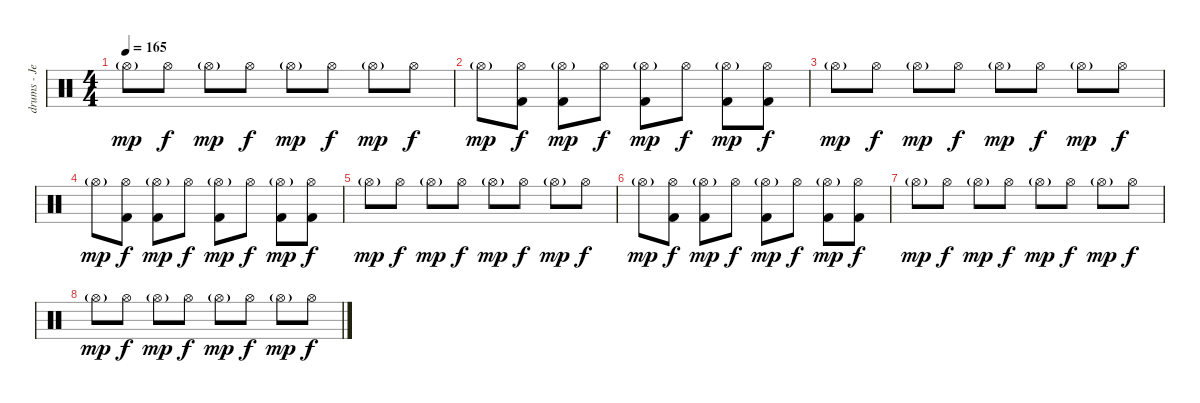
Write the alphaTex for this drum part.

\track ("drums - Jeff" "drums - Je") {instrument percussion}
\staff {score}
\articulation defaults
\ts (4 4)
\tempo 165
\clef neutral
\ks c "Hi-Hat (open)"{g}.8{dy mp} "Hi-Hat (open)".8{dy f} "Hi-Hat (open)"{g}.8{dy mp} "Hi-Hat (open)".8{dy f} "Hi-Hat (open)"{g}.8{dy mp} "Hi-Hat (open)".8{dy f} "Hi-Hat (open)"{g}.8{dy mp} "Hi-Hat (open)".8{dy f}
|
"Hi-Hat (open)"{g}.8{dy mp} ("Hi-Hat (open)" "Kick (hit) 2").8{dy f} ("Hi-Hat (open)"{g} "Kick (hit) 2").8{dy mp} "Hi-Hat (open)".8{dy f} ("Hi-Hat (open)"{g} "Kick (hit) 2").8{dy mp} "Hi-Hat (open)".8{dy f} ("Hi-Hat (open)"{g} "Kick (hit) 2").8{dy mp} ("Hi-Hat (open)" "Kick (hit) 2").8{dy f} |
"Hi-Hat (open)"{g}.8{dy mp} "Hi-Hat (open)".8{dy f} "Hi-Hat (open)"{g}.8{dy mp} "Hi-Hat (open)".8{dy f} "Hi-Hat (open)"{g}.8{dy mp} "Hi-Hat (open)".8{dy f} "Hi-Hat (open)"{g}.8{dy mp} "Hi-Hat (open)".8{dy f} |
"Hi-Hat (open)"{g}.8{dy mp} ("Hi-Hat (open)" "Kick (hit) 2").8{dy f} ("Hi-Hat (open)"{g} "Kick (hit) 2").8{dy mp} "Hi-Hat (open)".8{dy f} ("Hi-Hat (open)"{g} "Kick (hit) 2").8{dy mp} "Hi-Hat (open)".8{dy f} ("Hi-Hat (open)"{g} "Kick (hit) 2").8{dy mp} ("Hi-Hat (open)" "Kick (hit) 2").8{dy f} |
"Hi-Hat (open)"{g}.8{dy mp} "Hi-Hat (open)".8{dy f} "Hi-Hat (open)"{g}.8{dy mp} "Hi-Hat (open)".8{dy f} "Hi-Hat (open)"{g}.8{dy mp} "Hi-Hat (open)".8{dy f} "Hi-Hat (open)"{g}.8{dy mp} "Hi-Hat (open)".8{dy f} |
"Hi-Hat (open)"{g}.8{dy mp} ("Hi-Hat (open)" "Kick (hit) 2").8{dy f} ("Hi-Hat (open)"{g} "Kick (hit) 2").8{dy mp} "Hi-Hat (open)".8{dy f} ("Hi-Hat (open)"{g} "Kick (hit) 2").8{dy mp} "Hi-Hat (open)".8{dy f} ("Hi-Hat (open)"{g} "Kick (hit) 2").8{dy mp} ("Hi-Hat (open)" "Kick (hit) 2").8{dy f} |
"Hi-Hat (open)"{g}.8{dy mp} "Hi-Hat (open)".8{dy f} "Hi-Hat (open)"{g}.8{dy mp} "Hi-Hat (open)".8{dy f} "Hi-Hat (open)"{g}.8{dy mp} "Hi-Hat (open)".8{dy f} "Hi-Hat (open)"{g}.8{dy mp} "Hi-Hat (open)".8{dy f} |
"Hi-Hat (open)"{g}.8{dy mp} "Hi-Hat (open)".8{dy f} "Hi-Hat (open)"{g}.8{dy mp} "Hi-Hat (open)".8{dy f} "Hi-Hat (open)"{g}.8{dy mp} "Hi-Hat (open)".8{dy f} "Hi-Hat (open)"{g}.8{dy mp} "Hi-Hat (open)".8{dy f}
